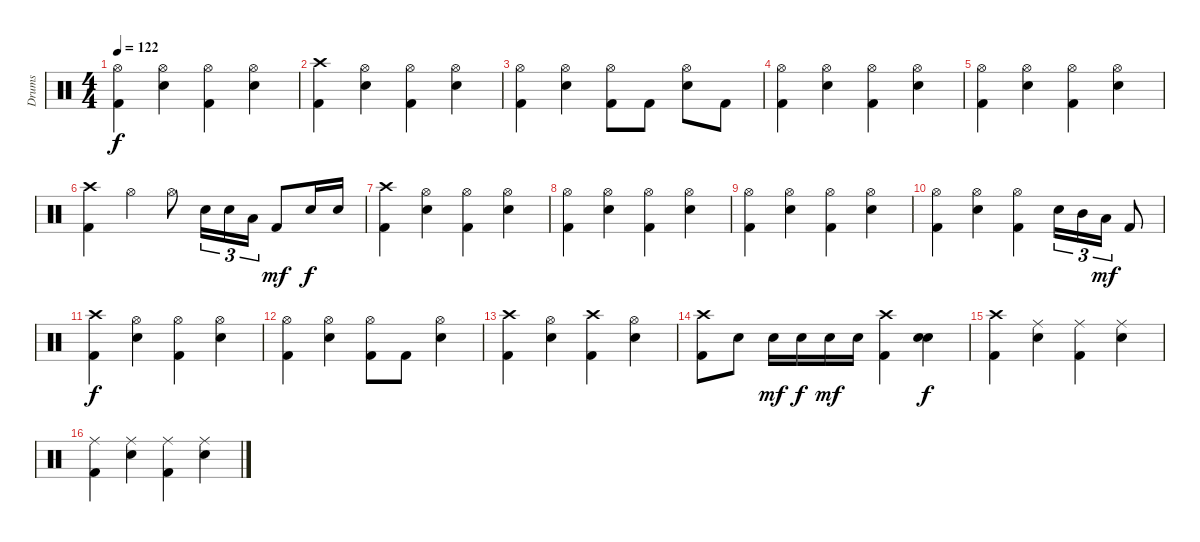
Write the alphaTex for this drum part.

\track ("Drums" "Drums") {instrument percussion}
\staff {score}
\articulation defaults
\ts (4 4)
\tempo 122
\clef neutral
\ks c
("Kick (hit) 2" "Hi-Hat (open)").4{dy f} ("Electric Snare (hit)" "Hi-Hat (open)").4 ("Kick (hit) 2" "Hi-Hat (open)").4 ("Electric Snare (hit)" "Hi-Hat (open)").4 |
("Crash high (hit)" "Kick (hit) 2").4 ("Electric Snare (hit)" "Hi-Hat (open)").4 ("Kick (hit) 2" "Hi-Hat (open)").4 ("Electric Snare (hit)" "Hi-Hat (open)").4 |
("Kick (hit) 2" "Hi-Hat (open)").4 ("Electric Snare (hit)" "Hi-Hat (open)").4 ("Kick (hit) 2" "Hi-Hat (open)").8 "Kick (hit) 2".8 ("Electric Snare (hit)" "Hi-Hat (open)").8 "Kick (hit) 2".8 |
("Hi-Hat (open)" "Kick (hit) 2").4 ("Electric Snare (hit)" "Hi-Hat (open)").4 ("Kick (hit) 2" "Hi-Hat (open)").4 ("Electric Snare (hit)" "Hi-Hat (open)").4 |
("Kick (hit) 2" "Hi-Hat (open)").4 ("Electric Snare (hit)" "Hi-Hat (open)").4 ("Kick (hit) 2" "Hi-Hat (open)").4 ("Electric Snare (hit)" "Hi-Hat (open)").4 |
("Kick (hit) 2" "Crash high (hit)").4 "Hi-Hat (open)".4 "Hi-Hat (open)".8 "Electric Snare (hit)".16{tu (3 2)} "Electric Snare (hit)".16{tu (3 2)} "Low Tom (hit)".16{tu (3 2)} "Kick (hit) 2".8{dy mf} "Electric Snare (hit)".16{dy f} "Electric Snare (hit)".16 |
("Kick (hit) 2" "Crash high (hit)").4 ("Electric Snare (hit)" "Hi-Hat (open)").4 ("Kick (hit) 2" "Hi-Hat (open)").4 ("Electric Snare (hit)" "Hi-Hat (open)").4 |
("Kick (hit) 2" "Hi-Hat (open)").4 ("Electric Snare (hit)" "Hi-Hat (open)").4 ("Kick (hit) 2" "Hi-Hat (open)").4 ("Electric Snare (hit)" "Hi-Hat (open)").4 |
("Kick (hit) 2" "Hi-Hat (open)").4 ("Electric Snare (hit)" "Hi-Hat (open)").4 ("Kick (hit) 2" "Hi-Hat (open)").4 ("Electric Snare (hit)" "Hi-Hat (open)").4 |
("Kick (hit) 2" "Hi-Hat (open)").4 ("Electric Snare (hit)" "Hi-Hat (open)").4 ("Kick (hit) 2" "Hi-Hat (open)").4 "Electric Snare (hit)".16{tu (3 2)} "Mid Tom (hit)".16{tu (3 2)} "Low Tom (hit)".16{tu (3 2) dy mf} "Kick (hit) 2".8 |
("Kick (hit) 2" "Crash high (hit)").4{dy f} ("Electric Snare (hit)" "Hi-Hat (open)").4 ("Kick (hit) 2" "Hi-Hat (open)").4 ("Electric Snare (hit)" "Hi-Hat (open)").4 |
("Kick (hit) 2" "Hi-Hat (open)").4 ("Electric Snare (hit)" "Hi-Hat (open)").4 ("Kick (hit) 2" "Hi-Hat (open)").8 "Kick (hit) 2".8 ("Electric Snare (hit)" "Hi-Hat (open)").4 |
("Kick (hit) 2" "Crash high (hit)").4 ("Electric Snare (hit)" "Hi-Hat (open)").4 ("Kick (hit) 2" "Crash high (hit)").4 ("Electric Snare (hit)" "Hi-Hat (open)").4 |
("Kick (hit) 2" "Crash high (hit)").8 "Electric Snare (hit)".8 "Electric Snare (hit)".16{dy mf} "Electric Snare (hit)".16{dy f} "Electric Snare (hit)".16{dy mf} "Electric Snare (hit)".16 ("Kick (hit) 2" "Crash high (hit)").4 ("Electric Snare (hit)" "Electric Snare (hit)").4{dy f} |
("Kick (hit) 2" "Crash high (hit)").4 ("Electric Snare (hit)" "Ride (middle)").4 ("Kick (hit) 2" "Ride (middle)").4 ("Electric Snare (hit)" "Ride (middle)").4 |
("Kick (hit) 2" "Ride (middle)").4 ("Electric Snare (hit)" "Ride (middle)").4 ("Kick (hit) 2" "Ride (middle)").4 ("Electric Snare (hit)" "Ride (middle)").4
